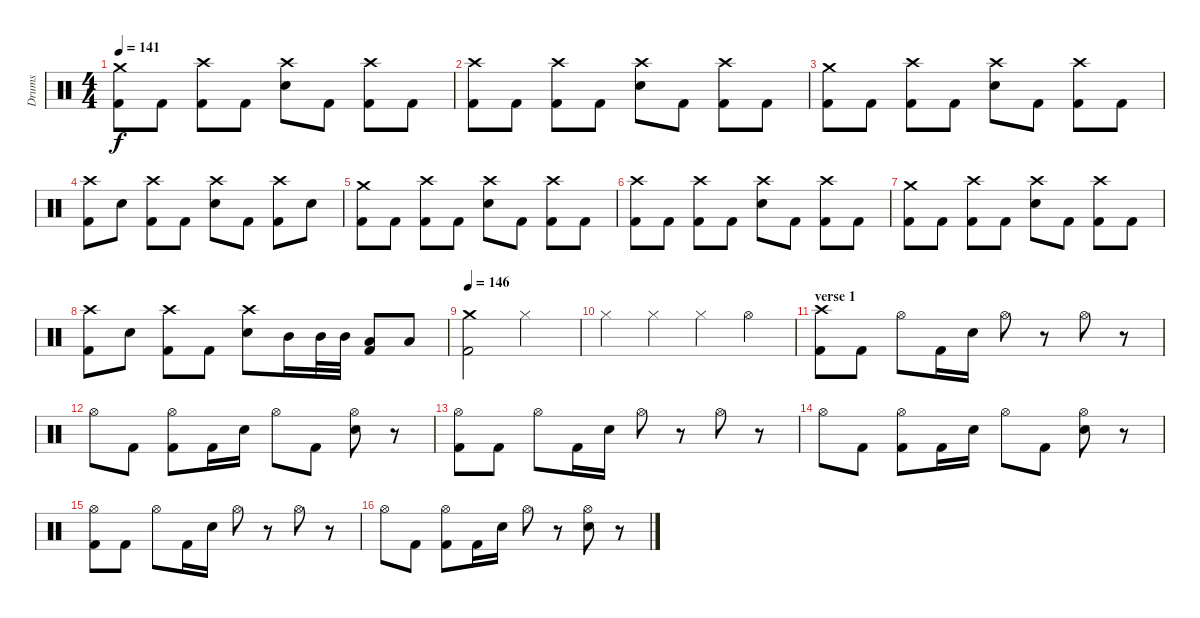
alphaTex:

\track ("Drums" "Drums") {instrument percussion}
\staff {score}
\articulation defaults
\ts (4 4)
\tempo 141
\clef neutral
\ks c
("Crash medium (hit)" "Kick (hit) 2").8{dy f} "Kick (hit) 2".8 ("Crash high (hit)" "Kick (hit) 2").8 "Kick (hit) 2".8 ("Crash high (hit)" "Electric Snare (hit)").8 "Kick (hit) 2".8 ("Crash high (hit)" "Kick (hit) 2").8 "Kick (hit) 2".8 |
("Crash high (hit)" "Kick (hit) 2").8 "Kick (hit) 2".8 ("Crash high (hit)" "Kick (hit) 2").8 "Kick (hit) 2".8 ("Crash high (hit)" "Electric Snare (hit)").8 "Kick (hit) 2".8 ("Crash high (hit)" "Kick (hit) 2").8 "Kick (hit) 2".8 |
("Crash medium (hit)" "Kick (hit) 2").8 "Kick (hit) 2".8 ("Crash high (hit)" "Kick (hit) 2").8 "Kick (hit) 2".8 ("Crash high (hit)" "Electric Snare (hit)").8 "Kick (hit) 2".8 ("Crash high (hit)" "Kick (hit) 2").8 "Kick (hit) 2".8 |
("Crash high (hit)" "Kick (hit) 2").8 "Electric Snare (hit)".8 ("Crash high (hit)" "Kick (hit) 2").8 "Kick (hit) 2".8 ("Crash high (hit)" "Electric Snare (hit)").8 "Kick (hit) 2".8 ("Crash high (hit)" "Kick (hit) 2").8 "Electric Snare (hit)".8 |
("Crash medium (hit)" "Kick (hit) 2").8 "Kick (hit) 2".8 ("Crash high (hit)" "Kick (hit) 2").8 "Kick (hit) 2".8 ("Crash high (hit)" "Electric Snare (hit)").8 "Kick (hit) 2".8 ("Crash high (hit)" "Kick (hit) 2").8 "Kick (hit) 2".8 |
("Crash high (hit)" "Kick (hit) 2").8 "Kick (hit) 2".8 ("Crash high (hit)" "Kick (hit) 2").8 "Kick (hit) 2".8 ("Crash high (hit)" "Electric Snare (hit)").8 "Kick (hit) 2".8 ("Crash high (hit)" "Kick (hit) 2").8 "Kick (hit) 2".8 |
("Crash medium (hit)" "Kick (hit) 2").8 "Kick (hit) 2".8 ("Crash high (hit)" "Kick (hit) 2").8 "Kick (hit) 2".8 ("Crash high (hit)" "Electric Snare (hit)").8 "Kick (hit) 2".8 ("Crash high (hit)" "Kick (hit) 2").8 "Kick (hit) 2".8 |
("Crash high (hit)" "Kick (hit) 2").8 "Electric Snare (hit)".8 ("Crash high (hit)" "Kick (hit) 2").8 "Kick (hit) 2".8 ("Crash high (hit)" "Electric Snare (hit)").8 "Mid Tom (hit)".16 "Mid Tom (hit)".32 "Mid Tom (hit)".32 ("Low Tom (hit)" "Kick (hit) 2").8 "Low Tom (hit)".8 |
\tempo 146
("Crash medium (hit)" "Kick (hit) 2").2 "Hi-Hat (closed)".2 |
"Hi-Hat (closed)".4 "Hi-Hat (closed)".4 "Hi-Hat (closed)".4 "Hi-Hat (open)".4 |
\section ("" "verse 1")
("Crash high (hit)" "Kick (hit) 2").8 "Kick (hit) 2".8 "Hi-Hat (open)".8 "Kick (hit) 2".16 "Electric Snare (hit)".16 "Hi-Hat (open)".8 r.8 "Hi-Hat (open)".8 r.8 |
"Hi-Hat (open)".8 "Kick (hit) 2".8 ("Hi-Hat (open)" "Kick (hit) 2").8 "Kick (hit) 2".16 "Electric Snare (hit)".16 "Hi-Hat (open)".8 "Kick (hit) 2".8 ("Hi-Hat (open)" "Electric Snare (hit)").8 r.8 |
("Hi-Hat (open)" "Kick (hit) 2").8 "Kick (hit) 2".8 "Hi-Hat (open)".8 "Kick (hit) 2".16 "Electric Snare (hit)".16 "Hi-Hat (open)".8 r.8 "Hi-Hat (open)".8 r.8 |
"Hi-Hat (open)".8 "Kick (hit) 2".8 ("Hi-Hat (open)" "Kick (hit) 2").8 "Kick (hit) 2".16 "Electric Snare (hit)".16 "Hi-Hat (open)".8 "Kick (hit) 2".8 ("Hi-Hat (open)" "Electric Snare (hit)").8 r.8 |
("Hi-Hat (open)" "Kick (hit) 2").8 "Kick (hit) 2".8 "Hi-Hat (open)".8 "Kick (hit) 2".16 "Electric Snare (hit)".16 "Hi-Hat (open)".8 r.8 "Hi-Hat (open)".8 r.8 |
"Hi-Hat (open)".8 "Kick (hit) 2".8 ("Hi-Hat (open)" "Kick (hit) 2").8 "Kick (hit) 2".16 "Electric Snare (hit)".16 "Hi-Hat (open)".8 r.8 ("Hi-Hat (open)" "Electric Snare (hit)").8 r.8
